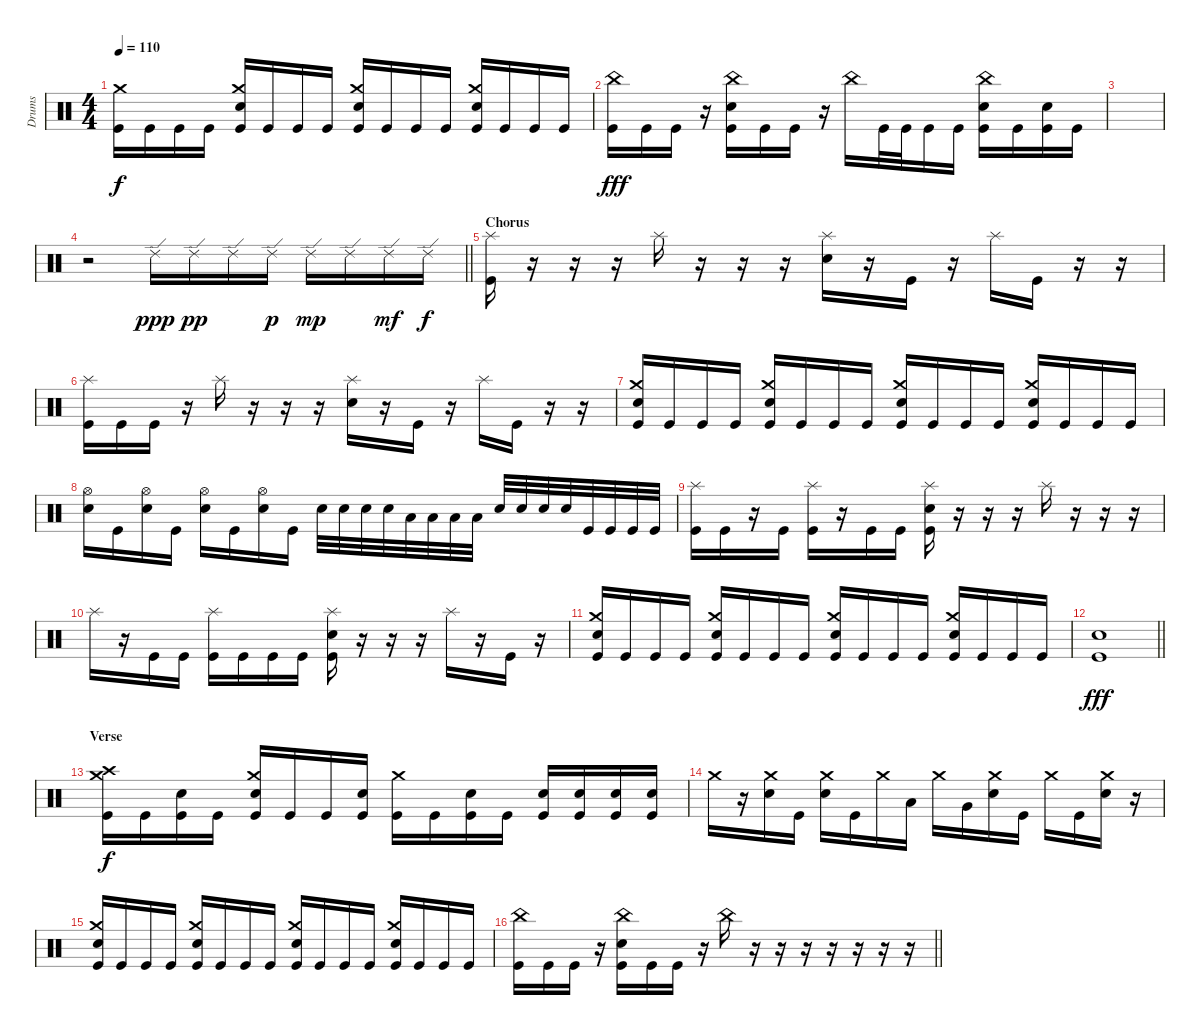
\track ("Drums" "Drums") {instrument percussion}
\staff {score}
\articulation defaults
\ts (4 4)
\tempo 110
\clef neutral
\ks c
("Kick (hit)" "Crash medium (hit)").16{dy f} "Kick (hit)".16 "Kick (hit)".16 "Kick (hit)".16 ("Kick (hit)" "Snare (hit) 2" "Crash medium (hit)").16 "Kick (hit)".16 "Kick (hit)".16 "Kick (hit)".16 ("Kick (hit)" "Snare (hit) 2" "Crash medium (hit)").16 "Kick (hit)".16 "Kick (hit)".16 "Kick (hit)".16 ("Kick (hit)" "Snare (hit) 2" "Crash medium (hit)").16 "Kick (hit)".16 "Kick (hit)".16 "Kick (hit)".16 |
("Kick (hit)" "China (hit)").16{dy fff} "Kick (hit)".16 "Kick (hit)".16 r.16 ("Kick (hit)" "China (hit)" "Snare (hit) 2").16 "Kick (hit)".16 "Kick (hit)".16 r.16 "China (hit)".16 "Kick (hit)".32 "Kick (hit)".32 "Kick (hit)".16 "Kick (hit)".16 ("Kick (hit)" "China (hit)" "Snare (hit) 2").16 "Kick (hit)".16 ("Kick (hit)" "Snare (hit) 2").16 "Kick (hit)".16 |
|
\barLineRight lightlight
r.2 "Ride (edge) 2".16{dy ppp} "Ride (edge) 2".16{dy pp} "Ride (edge) 2".16 "Ride (edge) 2".16{dy p} "Ride (edge) 2".16{dy mp} "Ride (edge) 2".16 "Ride (edge) 2".16{dy mf} "Ride (edge) 2".16{dy f} |
\section ("" "Chorus")
("Splash (hit)" "Kick (hit)").16 r.16 r.16 r.16 "Splash (hit)".16 r.16 r.16 r.16 ("Splash (hit)" "Snare (hit) 2").16 r.16 "Kick (hit)".16 r.16 "Splash (hit)".16 "Kick (hit)".16 r.16 r.16 |
("Kick (hit)" "Splash (hit)").16 "Kick (hit)".16 "Kick (hit)".16 r.16 "Splash (hit)".16 r.16 r.16 r.16 ("Splash (hit)" "Snare (hit) 2").16 r.16 "Kick (hit)".16 r.16 "Splash (hit)".16 "Kick (hit)".16 r.16 r.16 |
("Kick (hit)" "Crash medium (hit)" "Snare (hit) 2").16 "Kick (hit)".16 "Kick (hit)".16 "Kick (hit)".16 ("Kick (hit)" "Crash medium (hit)" "Snare (hit) 2").16 "Kick (hit)".16 "Kick (hit)".16 "Kick (hit)".16 ("Kick (hit)" "Crash medium (hit)" "Snare (hit) 2").16 "Kick (hit)".16 "Kick (hit)".16 "Kick (hit)".16 ("Kick (hit)" "Crash medium (hit)" "Snare (hit) 2").16 "Kick (hit)".16 "Kick (hit)".16 "Kick (hit)".16 |
("Snare (hit) 2" "Hi-Hat (open)").16 "Kick (hit)".16 ("Snare (hit) 2" "Hi-Hat (open)").16 "Kick (hit)".16 ("Snare (hit) 2" "Hi-Hat (open)").16 "Kick (hit)".16 ("Snare (hit) 2" "Hi-Hat (open)").16 "Kick (hit)".16 "Snare (hit) 2".32 "Snare (hit) 2".32 "Snare (hit) 2".32 "Snare (hit) 2".32 "Low Tom (hit)".32 "Low Tom (hit)".32 "Low Floor Tom (hit)".32 "Low Floor Tom (hit)".32 "Snare (hit) 2".32 "Snare (hit) 2".32 "Snare (hit) 2".32 "Snare (hit) 2".32 "Kick (hit)".32 "Kick (hit)".32 "Kick (hit)".32 "Kick (hit)".32 |
("Kick (hit)" "Splash (hit)").16 "Kick (hit)".16 r.16 "Kick (hit)".16 ("Kick (hit)" "Splash (hit)").16 r.16 "Kick (hit)".16 "Kick (hit)".16 ("Kick (hit)" "Splash (hit)" "Snare (hit) 2").16 r.16 r.16 r.16 "Splash (hit)".16 r.16 r.16 r.16 |
"Splash (hit)".16 r.16 "Kick (hit)".16 "Kick (hit)".16 ("Kick (hit)" "Splash (hit)").16 "Kick (hit)".16 "Kick (hit)".16 "Kick (hit)".16 ("Kick (hit)" "Splash (hit)" "Snare (hit) 2").16 r.16 r.16 r.16 "Splash (hit)".16 r.16 "Kick (hit)".16 r.16 |
("Kick (hit)" "Crash medium (hit)" "Snare (hit) 2").16 "Kick (hit)".16 "Kick (hit)".16 "Kick (hit)".16 ("Kick (hit)" "Crash medium (hit)" "Snare (hit) 2").16 "Kick (hit)".16 "Kick (hit)".16 "Kick (hit)".16 ("Kick (hit)" "Crash medium (hit)" "Snare (hit) 2").16 "Kick (hit)".16 "Kick (hit)".16 "Kick (hit)".16 ("Kick (hit)" "Crash medium (hit)" "Snare (hit) 2").16 "Kick (hit)".16 "Kick (hit)".16 "Kick (hit)".16 |
\barLineRight lightlight
("Snare (hit) 2" "Kick (hit)").1{dy fff} |
\section ("" "Verse")
("Kick (hit)" "Crash medium (hit)" "Crash high (hit)").16{dy f} "Kick (hit)".16 ("Kick (hit)" "Snare (hit) 2").16 "Kick (hit)".16 ("Kick (hit)" "Snare (hit) 2" "Crash medium (hit)").16 "Kick (hit)".16 "Kick (hit)".16 ("Kick (hit)" "Snare (hit) 2").16 ("Kick (hit)" "Crash medium (hit)").16 "Kick (hit)".16 ("Kick (hit)" "Snare (hit) 2").16 "Kick (hit)".16 ("Kick (hit)" "Snare (hit) 2").16 ("Kick (hit)" "Snare (hit) 2").16 ("Kick (hit)" "Snare (hit) 2").16 ("Snare (hit) 2" "Kick (hit)").16 |
"Crash medium (hit)".16 r.16 ("Crash medium (hit)" "Snare (hit) 2").16 "Kick (hit)".16 ("Snare (hit) 2" "Crash medium (hit)").16 "Kick (hit)".16 "Crash medium (hit)".16 "Low Tom (hit)".16 "Crash medium (hit)".16 "Very Low Tom (hit)".16 ("Snare (hit) 2" "Crash medium (hit)").16 "Kick (hit)".16 "Crash medium (hit)".16 "Kick (hit)".16 ("Crash medium (hit)" "Snare (hit) 2").16 r.16 |
("Kick (hit)" "Crash medium (hit)" "Snare (hit) 2").16 "Kick (hit)".16 "Kick (hit)".16 "Kick (hit)".16 ("Kick (hit)" "Snare (hit) 2" "Crash medium (hit)").16 "Kick (hit)".16 "Kick (hit)".16 "Kick (hit)".16 ("Crash medium (hit)" "Kick (hit)" "Snare (hit) 2").16 "Kick (hit)".16 "Kick (hit)".16 "Kick (hit)".16 ("Kick (hit)" "Snare (hit) 2" "Crash medium (hit)").16 "Kick (hit)".16 "Kick (hit)".16 "Kick (hit)".16 |
\barLineRight lightlight
("Kick (hit)" "China (hit)").16 "Kick (hit)".16 "Kick (hit)".16 r.16 ("Kick (hit)" "Snare (hit) 2" "China (hit)").16 "Kick (hit)".16 "Kick (hit)".16 r.16 "China (hit)".16 r.16 r.16 r.16 r.16 r.16 r.16 r.16
